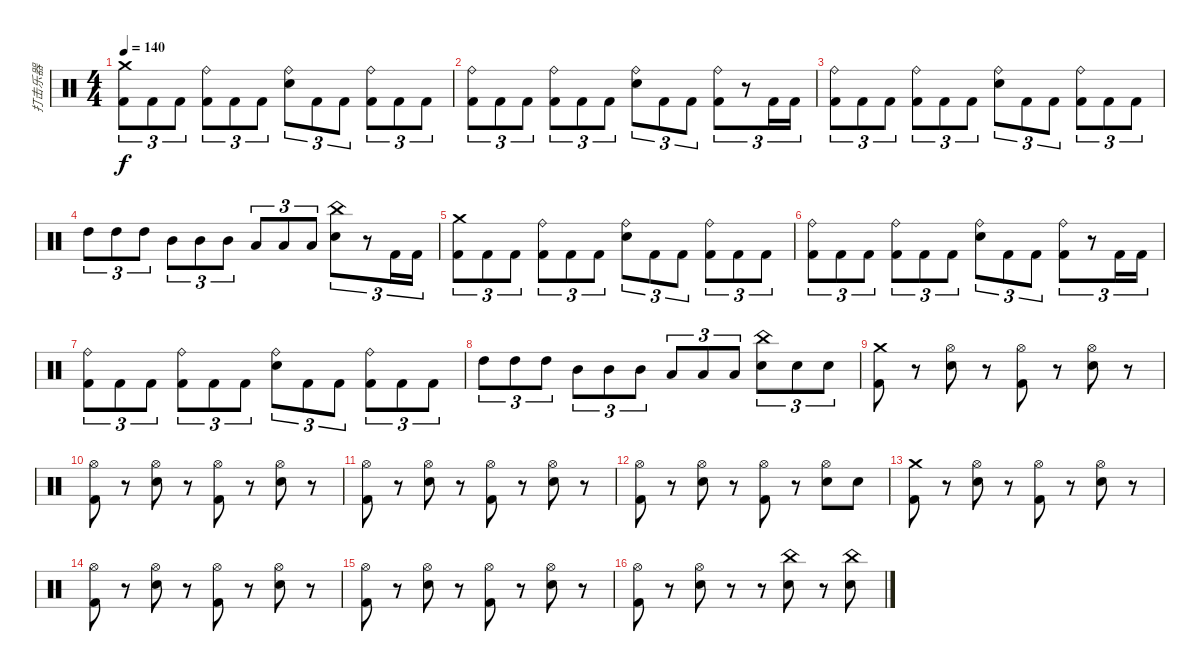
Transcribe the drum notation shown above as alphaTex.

\track ("打击乐器" "打击乐器") {instrument percussion}
\staff {score}
\articulation defaults
\ts (4 4)
\tempo 140
\clef neutral
\ks c
("Crash medium (hit)" "Kick (hit) 2").8{tu (3 2) dy f} "Kick (hit) 2".8{tu (3 2)} "Kick (hit) 2".8{tu (3 2)} ("Ride (bell)" "Kick (hit) 2").8{tu (3 2)} "Kick (hit) 2".8{tu (3 2)} "Kick (hit) 2".8{tu (3 2)} ("Ride (bell)" "Snare (hit) 2").8{tu (3 2)} "Kick (hit) 2".8{tu (3 2)} "Kick (hit) 2".8{tu (3 2)} ("Ride (bell)" "Kick (hit) 2").8{tu (3 2)} "Kick (hit) 2".8{tu (3 2)} "Kick (hit) 2".8{tu (3 2)} |
("Ride (bell)" "Kick (hit) 2").8{tu (3 2)} "Kick (hit) 2".8{tu (3 2)} "Kick (hit) 2".8{tu (3 2)} ("Ride (bell)" "Kick (hit) 2").8{tu (3 2)} "Kick (hit) 2".8{tu (3 2)} "Kick (hit) 2".8{tu (3 2)} ("Ride (bell)" "Snare (hit) 2").8{tu (3 2)} "Kick (hit) 2".8{tu (3 2)} "Kick (hit) 2".8{tu (3 2)} ("Ride (bell)" "Kick (hit) 2").8{tu (3 2)} r.8{tu (3 2)} "Kick (hit) 2".16{tu (3 2)} "Kick (hit) 2".16{tu (3 2)} |
("Ride (bell)" "Kick (hit) 2").8{tu (3 2)} "Kick (hit) 2".8{tu (3 2)} "Kick (hit) 2".8{tu (3 2)} ("Ride (bell)" "Kick (hit) 2").8{tu (3 2)} "Kick (hit) 2".8{tu (3 2)} "Kick (hit) 2".8{tu (3 2)} ("Ride (bell)" "Snare (hit) 2").8{tu (3 2)} "Kick (hit) 2".8{tu (3 2)} "Kick (hit) 2".8{tu (3 2)} ("Ride (bell)" "Kick (hit) 2").8{tu (3 2)} "Kick (hit) 2".8{tu (3 2)} "Kick (hit) 2".8{tu (3 2)} |
"High Tom (hit)".8{tu (3 2)} "High Tom (hit)".8{tu (3 2)} "High Tom (hit)".8{tu (3 2)} "Mid Tom (hit)".8{tu (3 2)} "Mid Tom (hit)".8{tu (3 2)} "Mid Tom (hit)".8{tu (3 2)} "Low Tom (hit)".8{tu (3 2)} "Low Tom (hit)".8{tu (3 2)} "Low Tom (hit)".8{tu (3 2)} ("China (hit)" "Snare (hit) 2").8{tu (3 2)} r.8{tu (3 2)} "Kick (hit) 2".16{tu (3 2)} "Kick (hit) 2".16{tu (3 2)} |
("Crash medium (hit)" "Kick (hit) 2").8{tu (3 2)} "Kick (hit) 2".8{tu (3 2)} "Kick (hit) 2".8{tu (3 2)} ("Ride (bell)" "Kick (hit) 2").8{tu (3 2)} "Kick (hit) 2".8{tu (3 2)} "Kick (hit) 2".8{tu (3 2)} ("Ride (bell)" "Snare (hit) 2").8{tu (3 2)} "Kick (hit) 2".8{tu (3 2)} "Kick (hit) 2".8{tu (3 2)} ("Ride (bell)" "Kick (hit) 2").8{tu (3 2)} "Kick (hit) 2".8{tu (3 2)} "Kick (hit) 2".8{tu (3 2)} |
("Ride (bell)" "Kick (hit) 2").8{tu (3 2)} "Kick (hit) 2".8{tu (3 2)} "Kick (hit) 2".8{tu (3 2)} ("Ride (bell)" "Kick (hit) 2").8{tu (3 2)} "Kick (hit) 2".8{tu (3 2)} "Kick (hit) 2".8{tu (3 2)} ("Ride (bell)" "Snare (hit) 2").8{tu (3 2)} "Kick (hit) 2".8{tu (3 2)} "Kick (hit) 2".8{tu (3 2)} ("Ride (bell)" "Kick (hit) 2").8{tu (3 2)} r.8{tu (3 2)} "Kick (hit) 2".16{tu (3 2)} "Kick (hit) 2".16{tu (3 2)} |
("Ride (bell)" "Kick (hit) 2").8{tu (3 2)} "Kick (hit) 2".8{tu (3 2)} "Kick (hit) 2".8{tu (3 2)} ("Ride (bell)" "Kick (hit) 2").8{tu (3 2)} "Kick (hit) 2".8{tu (3 2)} "Kick (hit) 2".8{tu (3 2)} ("Ride (bell)" "Snare (hit) 2").8{tu (3 2)} "Kick (hit) 2".8{tu (3 2)} "Kick (hit) 2".8{tu (3 2)} ("Ride (bell)" "Kick (hit) 2").8{tu (3 2)} "Kick (hit) 2".8{tu (3 2)} "Kick (hit) 2".8{tu (3 2)} |
"High Tom (hit)".8{tu (3 2)} "High Tom (hit)".8{tu (3 2)} "High Tom (hit)".8{tu (3 2)} "Mid Tom (hit)".8{tu (3 2)} "Mid Tom (hit)".8{tu (3 2)} "Mid Tom (hit)".8{tu (3 2)} "Low Tom (hit)".8{tu (3 2)} "Low Tom (hit)".8{tu (3 2)} "Low Tom (hit)".8{tu (3 2)} ("China (hit)" "Snare (hit) 2").8{tu (3 2)} "Snare (hit) 2".8{tu (3 2)} "Snare (hit) 2".8{tu (3 2)} |
("Crash medium (hit)" "Kick (hit) 2").8 r.8 ("Hi-Hat (open)" "Snare (hit) 2").8 r.8 ("Hi-Hat (open)" "Kick (hit) 2").8 r.8 ("Hi-Hat (open)" "Snare (hit) 2").8 r.8 |
("Hi-Hat (open)" "Kick (hit) 2").8 r.8 ("Hi-Hat (open)" "Snare (hit) 2").8 r.8 ("Hi-Hat (open)" "Kick (hit) 2").8 r.8 ("Hi-Hat (open)" "Snare (hit) 2").8 r.8 |
("Hi-Hat (open)" "Kick (hit) 2").8 r.8 ("Hi-Hat (open)" "Snare (hit) 2").8 r.8 ("Hi-Hat (open)" "Kick (hit) 2").8 r.8 ("Hi-Hat (open)" "Snare (hit) 2").8 r.8 |
("Hi-Hat (open)" "Kick (hit) 2").8 r.8 ("Hi-Hat (open)" "Snare (hit) 2").8 r.8 ("Hi-Hat (open)" "Kick (hit) 2").8 r.8 ("Hi-Hat (open)" "Snare (hit) 2").8 "Snare (hit) 2".8 |
("Crash medium (hit)" "Kick (hit) 2").8 r.8 ("Hi-Hat (open)" "Snare (hit) 2").8 r.8 ("Hi-Hat (open)" "Kick (hit) 2").8 r.8 ("Hi-Hat (open)" "Snare (hit) 2").8 r.8 |
("Hi-Hat (open)" "Kick (hit) 2").8 r.8 ("Hi-Hat (open)" "Snare (hit) 2").8 r.8 ("Hi-Hat (open)" "Kick (hit) 2").8 r.8 ("Hi-Hat (open)" "Snare (hit) 2").8 r.8 |
("Hi-Hat (open)" "Kick (hit) 2").8 r.8 ("Hi-Hat (open)" "Snare (hit) 2").8 r.8 ("Hi-Hat (open)" "Kick (hit) 2").8 r.8 ("Hi-Hat (open)" "Snare (hit) 2").8 r.8 |
("Hi-Hat (open)" "Kick (hit) 2").8 r.8 ("Hi-Hat (open)" "Snare (hit) 2").8 r.8 r.8 ("China (hit)" "Snare (hit) 2").8 r.8 ("China (hit)" "Snare (hit) 2").8
